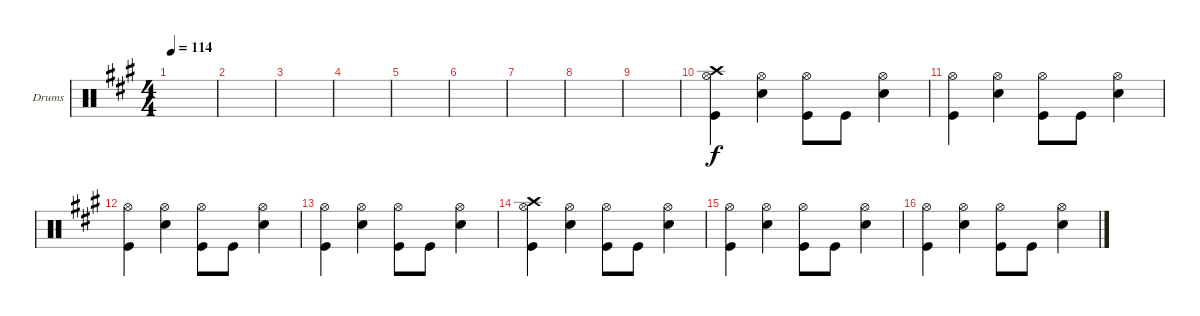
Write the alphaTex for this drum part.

\defaultSystemsLayout 4
\bracketExtendMode groupsimilarinstruments
\firstSystemTrackNameOrientation horizontal
\otherSystemsTrackNameOrientation horizontal
\track ("Drumkit" "Drums") {instrument percussion}
\staff {score}
\articulation defaults
\ts (4 4)
\ac
\tempo 114
\clef neutral
\ks f#minor
|
\scale
0.540984 |
\scale
0.229508 |
\scale
0.229508 |
\scale
0.333333 |
\scale
0.333333 |
\scale
0.333333 |
\scale
0.333333 |
\scale
0.333333 |
\scale
0.333333 ("Hi-Hat (open)" "Kick (hit)" "Crash high (hit)").4 ("Hi-Hat (open)" "Snare (hit) 2").4 ("Hi-Hat (open)" "Kick (hit)").8 "Kick (hit)".8 ("Hi-Hat (open)" "Snare (hit) 2").4 |
\scale
0.333333 ("Hi-Hat (open)" "Kick (hit)").4 ("Hi-Hat (open)" "Snare (hit) 2").4 ("Hi-Hat (open)" "Kick (hit)").8 "Kick (hit)".8 ("Hi-Hat (open)" "Snare (hit) 2").4 |
\scale
0.333333 ("Hi-Hat (open)" "Kick (hit)").4 ("Hi-Hat (open)" "Snare (hit) 2").4 ("Hi-Hat (open)" "Kick (hit)").8 "Kick (hit)".8 ("Hi-Hat (open)" "Snare (hit) 2").4 |
\scale
0.333333 ("Hi-Hat (open)" "Kick (hit)").4 ("Hi-Hat (open)" "Snare (hit) 2").4 ("Hi-Hat (open)" "Kick (hit)").8 "Kick (hit)".8 ("Hi-Hat (open)" "Snare (hit) 2").4 |
\scale
0.333333 ("Hi-Hat (open)" "Kick (hit)" "Crash high (hit)").4 ("Hi-Hat (open)" "Snare (hit) 2").4 ("Hi-Hat (open)" "Kick (hit)").8 "Kick (hit)".8 ("Hi-Hat (open)" "Snare (hit) 2").4 |
\scale
0.333333 ("Hi-Hat (open)" "Kick (hit)").4 ("Hi-Hat (open)" "Snare (hit) 2").4 ("Hi-Hat (open)" "Kick (hit)").8 "Kick (hit)".8 ("Hi-Hat (open)" "Snare (hit) 2").4 |
\scale
0.333333 ("Hi-Hat (open)" "Kick (hit)").4 ("Hi-Hat (open)" "Snare (hit) 2").4 ("Hi-Hat (open)" "Kick (hit)").8 "Kick (hit)".8 ("Hi-Hat (open)" "Snare (hit) 2").4
